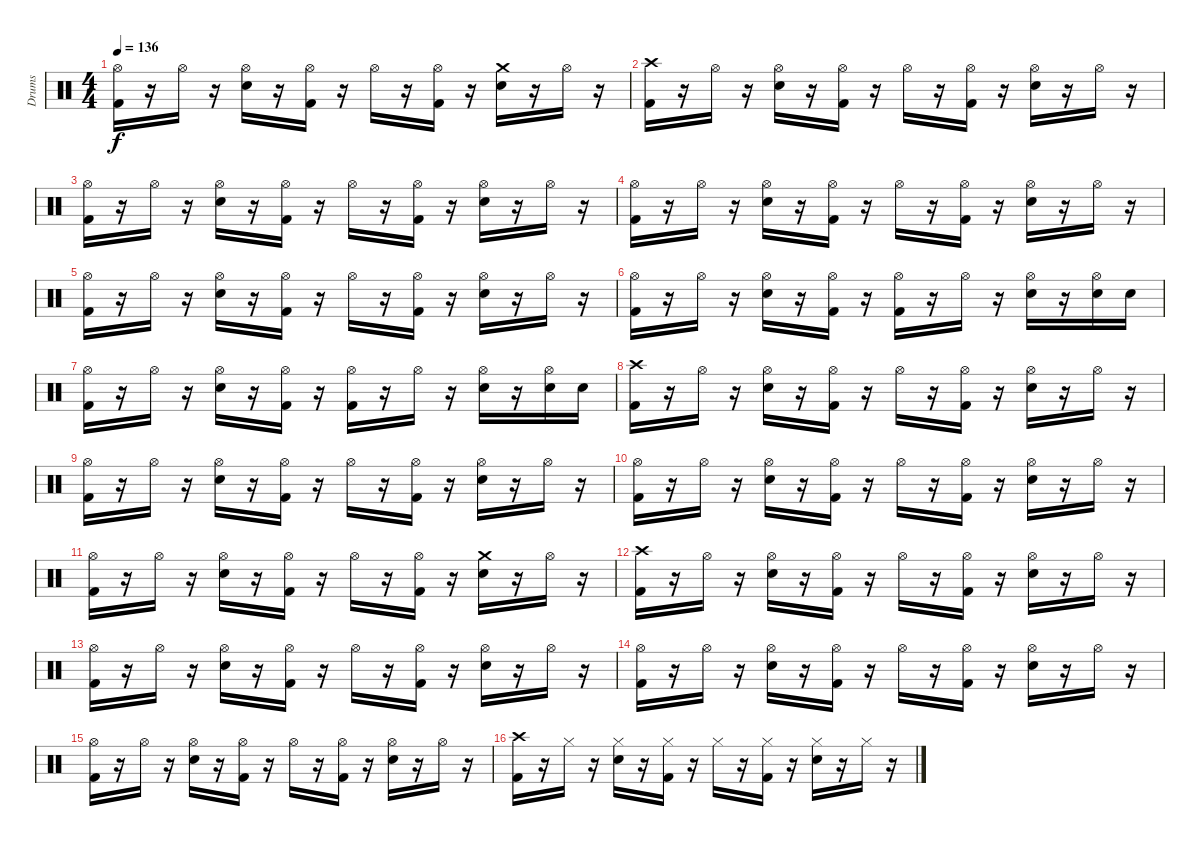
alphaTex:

\track ("Drums" "Drums") {instrument percussion}
\staff {score}
\articulation defaults
\ts (4 4)
\tempo 136
\clef neutral
\ks c
("Kick (hit) 2" "Hi-Hat (open)").16{dy f} r.16 "Hi-Hat (open)".16 r.16 ("Electric Snare (hit)" "Hi-Hat (open)").16 r.16 ("Kick (hit) 2" "Hi-Hat (open)").16 r.16 "Hi-Hat (open)".16 r.16 ("Kick (hit) 2" "Hi-Hat (open)").16 r.16 ("Electric Snare (hit)" "Crash medium (hit)").16 r.16 "Hi-Hat (open)".16 r.16 |
("Kick (hit) 2" "Crash high (hit)").16 r.16 "Hi-Hat (open)".16 r.16 ("Electric Snare (hit)" "Hi-Hat (open)").16 r.16 ("Kick (hit) 2" "Hi-Hat (open)").16 r.16 "Hi-Hat (open)".16 r.16 ("Kick (hit) 2" "Hi-Hat (open)").16 r.16 ("Electric Snare (hit)" "Hi-Hat (open)").16 r.16 "Hi-Hat (open)".16 r.16 |
("Kick (hit) 2" "Hi-Hat (open)").16 r.16 "Hi-Hat (open)".16 r.16 ("Electric Snare (hit)" "Hi-Hat (open)").16 r.16 ("Kick (hit) 2" "Hi-Hat (open)").16 r.16 "Hi-Hat (open)".16 r.16 ("Kick (hit) 2" "Hi-Hat (open)").16 r.16 ("Electric Snare (hit)" "Hi-Hat (open)").16 r.16 "Hi-Hat (open)".16 r.16 |
("Kick (hit) 2" "Hi-Hat (open)").16 r.16 "Hi-Hat (open)".16 r.16 ("Electric Snare (hit)" "Hi-Hat (open)").16 r.16 ("Kick (hit) 2" "Hi-Hat (open)").16 r.16 "Hi-Hat (open)".16 r.16 ("Kick (hit) 2" "Hi-Hat (open)").16 r.16 ("Electric Snare (hit)" "Hi-Hat (open)").16 r.16 "Hi-Hat (open)".16 r.16 |
("Kick (hit) 2" "Hi-Hat (open)").16 r.16 "Hi-Hat (open)".16 r.16 ("Electric Snare (hit)" "Hi-Hat (open)").16 r.16 ("Kick (hit) 2" "Hi-Hat (open)").16 r.16 "Hi-Hat (open)".16 r.16 ("Kick (hit) 2" "Hi-Hat (open)").16 r.16 ("Electric Snare (hit)" "Hi-Hat (open)").16 r.16 "Hi-Hat (open)".16 r.16 |
("Kick (hit) 2" "Hi-Hat (open)").16 r.16 "Hi-Hat (open)".16 r.16 ("Electric Snare (hit)" "Hi-Hat (open)").16 r.16 ("Kick (hit) 2" "Hi-Hat (open)").16 r.16 ("Kick (hit) 2" "Hi-Hat (open)").16 r.16 "Hi-Hat (open)".16 r.16 ("Electric Snare (hit)" "Hi-Hat (open)").16 r.16 ("Electric Snare (hit)" "Hi-Hat (open)").16 "Electric Snare (hit)".16 |
("Kick (hit) 2" "Hi-Hat (open)").16 r.16 "Hi-Hat (open)".16 r.16 ("Electric Snare (hit)" "Hi-Hat (open)").16 r.16 ("Kick (hit) 2" "Hi-Hat (open)").16 r.16 ("Kick (hit) 2" "Hi-Hat (open)").16 r.16 "Hi-Hat (open)".16 r.16 ("Electric Snare (hit)" "Hi-Hat (open)").16 r.16 ("Electric Snare (hit)" "Hi-Hat (open)").16 "Electric Snare (hit)".16 |
("Kick (hit) 2" "Crash high (hit)").16 r.16 "Hi-Hat (open)".16 r.16 ("Electric Snare (hit)" "Hi-Hat (open)").16 r.16 ("Kick (hit) 2" "Hi-Hat (open)").16 r.16 "Hi-Hat (open)".16 r.16 ("Kick (hit) 2" "Hi-Hat (open)").16 r.16 ("Electric Snare (hit)" "Hi-Hat (open)").16 r.16 "Hi-Hat (open)".16 r.16 |
("Kick (hit) 2" "Hi-Hat (open)").16 r.16 "Hi-Hat (open)".16 r.16 ("Electric Snare (hit)" "Hi-Hat (open)").16 r.16 ("Kick (hit) 2" "Hi-Hat (open)").16 r.16 "Hi-Hat (open)".16 r.16 ("Kick (hit) 2" "Hi-Hat (open)").16 r.16 ("Electric Snare (hit)" "Hi-Hat (open)").16 r.16 "Hi-Hat (open)".16 r.16 |
("Kick (hit) 2" "Hi-Hat (open)").16 r.16 "Hi-Hat (open)".16 r.16 ("Electric Snare (hit)" "Hi-Hat (open)").16 r.16 ("Kick (hit) 2" "Hi-Hat (open)").16 r.16 "Hi-Hat (open)".16 r.16 ("Kick (hit) 2" "Hi-Hat (open)").16 r.16 ("Electric Snare (hit)" "Hi-Hat (open)").16 r.16 "Hi-Hat (open)".16 r.16 |
("Kick (hit) 2" "Hi-Hat (open)").16 r.16 "Hi-Hat (open)".16 r.16 ("Electric Snare (hit)" "Hi-Hat (open)").16 r.16 ("Kick (hit) 2" "Hi-Hat (open)").16 r.16 "Hi-Hat (open)".16 r.16 ("Kick (hit) 2" "Hi-Hat (open)").16 r.16 ("Electric Snare (hit)" "Crash medium (hit)").16 r.16 "Hi-Hat (open)".16 r.16 |
("Kick (hit) 2" "Crash high (hit)").16 r.16 "Hi-Hat (open)".16 r.16 ("Electric Snare (hit)" "Hi-Hat (open)").16 r.16 ("Kick (hit) 2" "Hi-Hat (open)").16 r.16 "Hi-Hat (open)".16 r.16 ("Kick (hit) 2" "Hi-Hat (open)").16 r.16 ("Electric Snare (hit)" "Hi-Hat (open)").16 r.16 "Hi-Hat (open)".16 r.16 |
("Kick (hit) 2" "Hi-Hat (open)").16 r.16 "Hi-Hat (open)".16 r.16 ("Electric Snare (hit)" "Hi-Hat (open)").16 r.16 ("Kick (hit) 2" "Hi-Hat (open)").16 r.16 "Hi-Hat (open)".16 r.16 ("Kick (hit) 2" "Hi-Hat (open)").16 r.16 ("Electric Snare (hit)" "Hi-Hat (open)").16 r.16 "Hi-Hat (open)".16 r.16 |
("Kick (hit) 2" "Hi-Hat (open)").16 r.16 "Hi-Hat (open)".16 r.16 ("Electric Snare (hit)" "Hi-Hat (open)").16 r.16 ("Kick (hit) 2" "Hi-Hat (open)").16 r.16 "Hi-Hat (open)".16 r.16 ("Kick (hit) 2" "Hi-Hat (open)").16 r.16 ("Electric Snare (hit)" "Hi-Hat (open)").16 r.16 "Hi-Hat (open)".16 r.16 |
("Kick (hit) 2" "Hi-Hat (open)").16 r.16 "Hi-Hat (open)".16 r.16 ("Electric Snare (hit)" "Hi-Hat (open)").16 r.16 ("Kick (hit) 2" "Hi-Hat (open)").16 r.16 "Hi-Hat (open)".16 r.16 ("Kick (hit) 2" "Hi-Hat (open)").16 r.16 ("Electric Snare (hit)" "Hi-Hat (open)").16 r.16 "Hi-Hat (open)".16 r.16 |
("Kick (hit) 2" "Crash high (hit)").16 r.16 "Hi-Hat (closed)".16 r.16 ("Electric Snare (hit)" "Hi-Hat (closed)").16 r.16 ("Kick (hit) 2" "Hi-Hat (closed)").16 r.16 "Hi-Hat (closed)".16 r.16 ("Kick (hit) 2" "Hi-Hat (closed)").16 r.16 ("Electric Snare (hit)" "Hi-Hat (closed)").16 r.16 "Hi-Hat (closed)".16 r.16
